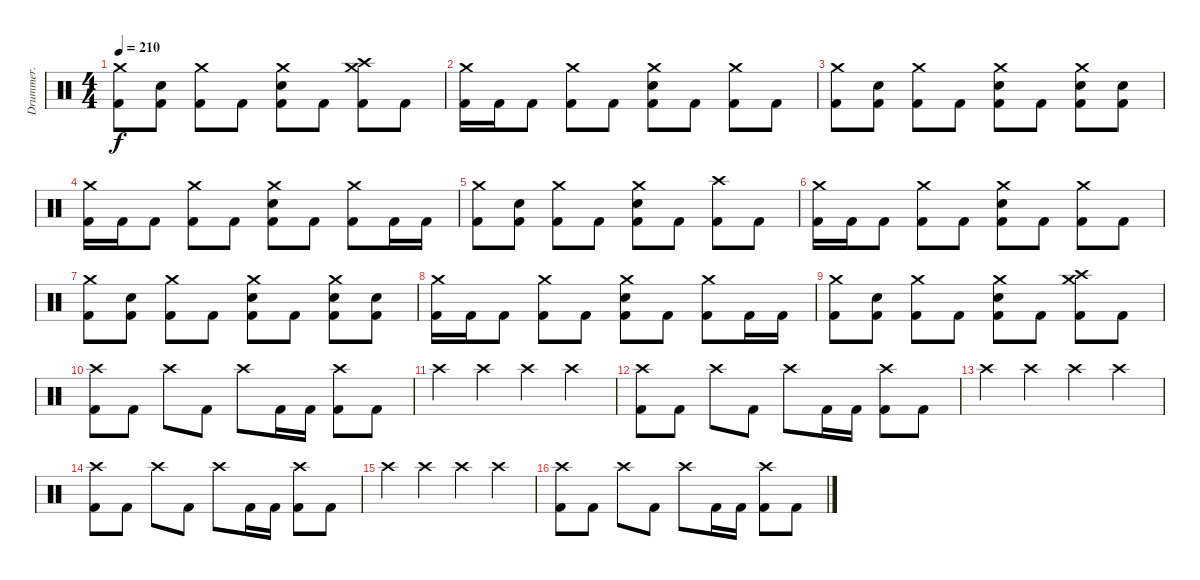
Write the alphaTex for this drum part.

\track ("Drummer." "Drummer.") {instrument percussion}
\staff {score}
\articulation defaults
\ts (4 4)
\tempo 210
\clef neutral
\ks c
("Crash medium (hit)" "Kick (hit) 2").8{dy f} ("Snare (hit) 2" "Kick (hit) 2").8 ("Crash medium (hit)" "Kick (hit) 2").8 "Kick (hit) 2".8 ("Crash medium (hit)" "Snare (hit) 2" "Kick (hit) 2").8 "Kick (hit) 2".8 ("Crash medium (hit)" "Crash high (hit)" "Kick (hit) 2").8 "Kick (hit) 2".8 |
("Crash medium (hit)" "Kick (hit) 2").16 "Kick (hit) 2".16 "Kick (hit) 2".8 ("Crash medium (hit)" "Kick (hit) 2").8 "Kick (hit) 2".8 ("Crash medium (hit)" "Snare (hit) 2" "Kick (hit) 2").8 "Kick (hit) 2".8 ("Crash medium (hit)" "Kick (hit) 2").8 "Kick (hit) 2".8 |
("Crash medium (hit)" "Kick (hit) 2").8 ("Snare (hit) 2" "Kick (hit) 2").8 ("Crash medium (hit)" "Kick (hit) 2").8 "Kick (hit) 2".8 ("Crash medium (hit)" "Snare (hit) 2" "Kick (hit) 2").8 "Kick (hit) 2".8 ("Crash medium (hit)" "Snare (hit) 2" "Kick (hit) 2").8 ("Snare (hit) 2" "Kick (hit) 2").8 |
("Crash medium (hit)" "Kick (hit) 2").16 "Kick (hit) 2".16 "Kick (hit) 2".8 ("Crash medium (hit)" "Kick (hit) 2").8 "Kick (hit) 2".8 ("Crash medium (hit)" "Snare (hit) 2" "Kick (hit) 2").8 "Kick (hit) 2".8 ("Crash medium (hit)" "Kick (hit) 2").8 "Kick (hit) 2".16 "Kick (hit) 2".16 |
("Crash medium (hit)" "Kick (hit) 2").8 ("Snare (hit) 2" "Kick (hit) 2").8 ("Crash medium (hit)" "Kick (hit) 2").8 "Kick (hit) 2".8 ("Crash medium (hit)" "Snare (hit) 2" "Kick (hit) 2").8 "Kick (hit) 2".8 ("Crash high (hit)" "Kick (hit) 2").8 "Kick (hit) 2".8 |
("Crash medium (hit)" "Kick (hit) 2").16 "Kick (hit) 2".16 "Kick (hit) 2".8 ("Crash medium (hit)" "Kick (hit) 2").8 "Kick (hit) 2".8 ("Crash medium (hit)" "Snare (hit) 2" "Kick (hit) 2").8 "Kick (hit) 2".8 ("Crash medium (hit)" "Kick (hit) 2").8 "Kick (hit) 2".8 |
("Crash medium (hit)" "Kick (hit) 2").8 ("Snare (hit) 2" "Kick (hit) 2").8 ("Crash medium (hit)" "Kick (hit) 2").8 "Kick (hit) 2".8 ("Crash medium (hit)" "Snare (hit) 2" "Kick (hit) 2").8 "Kick (hit) 2".8 ("Crash medium (hit)" "Snare (hit) 2" "Kick (hit) 2").8 ("Snare (hit) 2" "Kick (hit) 2").8 |
("Crash medium (hit)" "Kick (hit) 2").16 "Kick (hit) 2".16 "Kick (hit) 2".8 ("Crash medium (hit)" "Kick (hit) 2").8 "Kick (hit) 2".8 ("Crash medium (hit)" "Snare (hit) 2" "Kick (hit) 2").8 "Kick (hit) 2".8 ("Crash medium (hit)" "Kick (hit) 2").8 "Kick (hit) 2".16 "Kick (hit) 2".16 |
("Crash medium (hit)" "Kick (hit) 2").8 ("Snare (hit) 2" "Kick (hit) 2").8 ("Crash medium (hit)" "Kick (hit) 2").8 "Kick (hit) 2".8 ("Crash medium (hit)" "Snare (hit) 2" "Kick (hit) 2").8 "Kick (hit) 2".8 ("Crash medium (hit)" "Crash high (hit)" "Kick (hit) 2").8 "Kick (hit) 2".8 |
("Crash high (hit)" "Kick (hit) 2").8 "Kick (hit) 2".8 "Crash high (hit)".8 "Kick (hit) 2".8 "Crash high (hit)".8 "Kick (hit) 2".16 "Kick (hit) 2".16 ("Crash high (hit)" "Kick (hit) 2").8 "Kick (hit) 2".8 |
"Crash high (hit)".4 "Crash high (hit)".4 "Crash high (hit)".4 "Crash high (hit)".4 |
("Crash high (hit)" "Kick (hit) 2").8 "Kick (hit) 2".8 "Crash high (hit)".8 "Kick (hit) 2".8 "Crash high (hit)".8 "Kick (hit) 2".16 "Kick (hit) 2".16 ("Crash high (hit)" "Kick (hit) 2").8 "Kick (hit) 2".8 |
"Crash high (hit)".4 "Crash high (hit)".4 "Crash high (hit)".4 "Crash high (hit)".4 |
("Crash high (hit)" "Kick (hit) 2").8 "Kick (hit) 2".8 "Crash high (hit)".8 "Kick (hit) 2".8 "Crash high (hit)".8 "Kick (hit) 2".16 "Kick (hit) 2".16 ("Crash high (hit)" "Kick (hit) 2").8 "Kick (hit) 2".8 |
"Crash high (hit)".4 "Crash high (hit)".4 "Crash high (hit)".4 "Crash high (hit)".4 |
("Crash high (hit)" "Kick (hit) 2").8 "Kick (hit) 2".8 "Crash high (hit)".8 "Kick (hit) 2".8 "Crash high (hit)".8 "Kick (hit) 2".16 "Kick (hit) 2".16 ("Crash high (hit)" "Kick (hit) 2").8 "Kick (hit) 2".8
